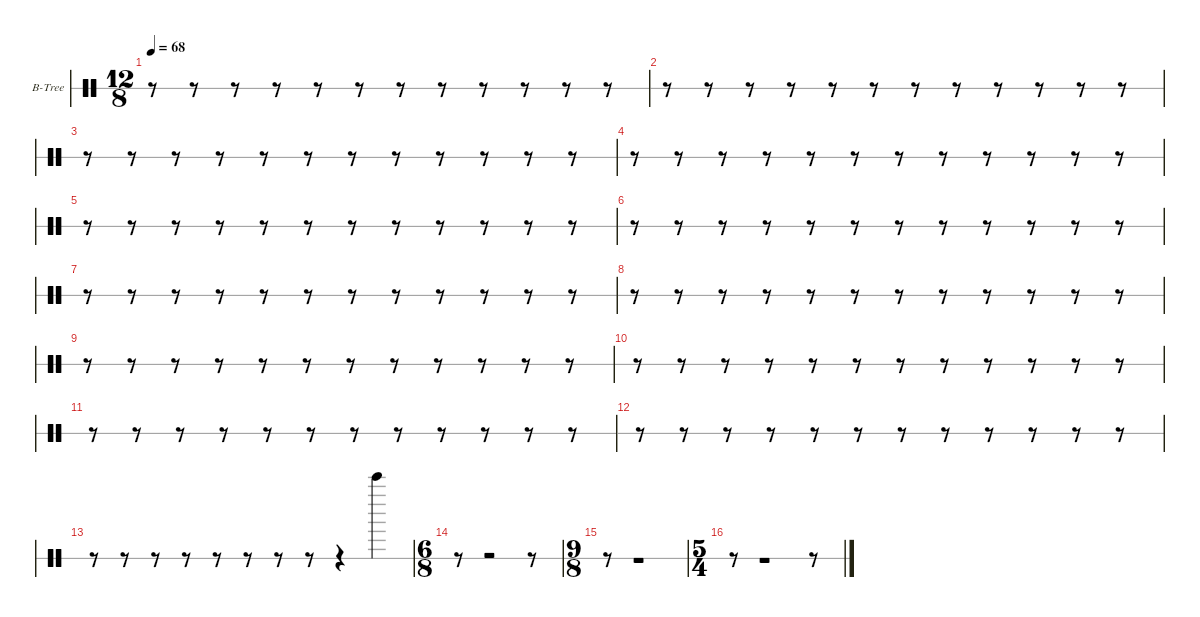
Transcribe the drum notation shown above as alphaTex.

\hideDynamics
\bracketExtendMode nobrackets
\firstSystemTrackNameOrientation horizontal
\otherSystemsTrackNameOrientation horizontal
\track ("Bass" "B-Tree") {instrument percussion}
\staff {score 1}
\articulation defaults
\ts (12 8)
\tempo 68
\clef neutral
\ks c
r.8{dy f} r.8 r.8 r.8 r.8 r.8 r.8 r.8 r.8 r.8 r.8 r.8 |
r.8 r.8 r.8 r.8 r.8 r.8 r.8 r.8 r.8 r.8 r.8 r.8 |
r.8 r.8 r.8 r.8 r.8 r.8 r.8 r.8 r.8 r.8 r.8 r.8 |
r.8 r.8 r.8 r.8 r.8 r.8 r.8 r.8 r.8 r.8 r.8 r.8 |
r.8 r.8 r.8 r.8 r.8 r.8 r.8 r.8 r.8 r.8 r.8 r.8 |
r.8 r.8 r.8 r.8 r.8 r.8 r.8 r.8 r.8 r.8 r.8 r.8 |
r.8 r.8 r.8 r.8 r.8 r.8 r.8 r.8 r.8 r.8 r.8 r.8 |
r.8 r.8 r.8 r.8 r.8 r.8 r.8 r.8 r.8 r.8 r.8 r.8 |
r.8 r.8 r.8 r.8 r.8 r.8 r.8 r.8 r.8 r.8 r.8 r.8 |
r.8 r.8 r.8 r.8 r.8 r.8 r.8 r.8 r.8 r.8 r.8 r.8 |
r.8 r.8 r.8 r.8 r.8 r.8 r.8 r.8 r.8 r.8 r.8 r.8 |
r.8 r.8 r.8 r.8 r.8 r.8 r.8 r.8 r.8 r.8 r.8 r.8 |
r.8 r.8 r.8 r.8 r.8 r.8 r.8 r.8 r.4 "Bell Tree (hit)".4 |
\ts (6 8)
r.8 r.2 r.8 |
\ts (9 8)
r.8 r.1 |
\ts (5 4)
r.8 r.1 r.8
